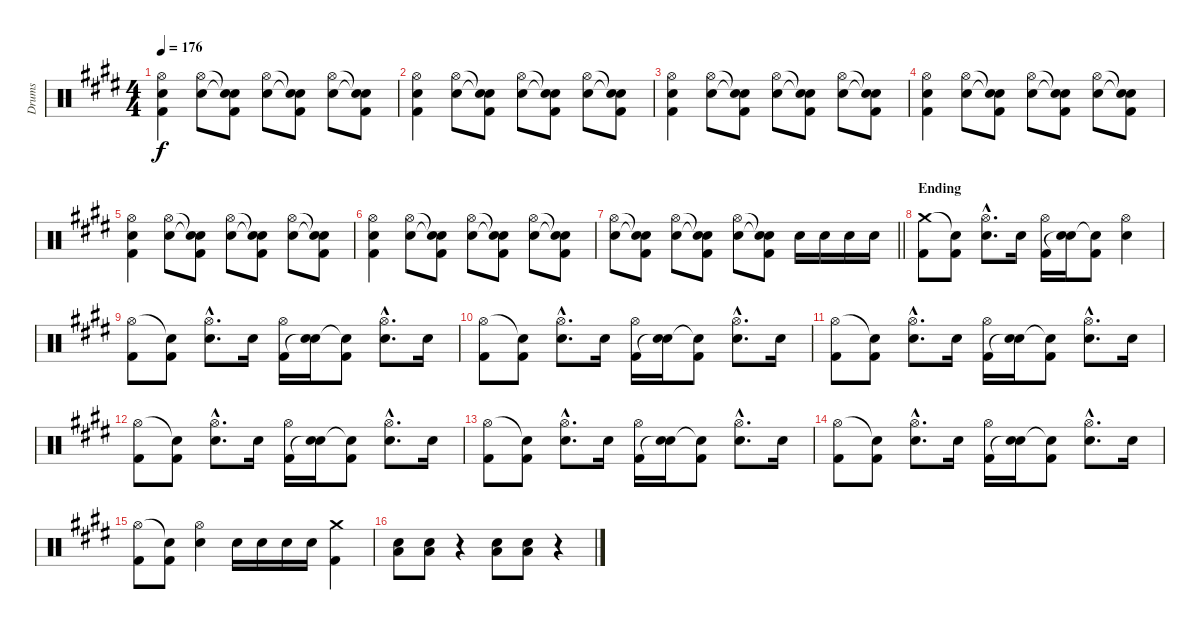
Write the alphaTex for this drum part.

\track ("Drums" "Drums") {instrument percussion}
\staff {score}
\articulation defaults
\ts (4 4)
\tempo 176
\clef neutral
\ks c#minor
("Hi-Hat (open)" "Electric Snare (hit)" "Kick (hit) 2").4{dy f} ("Hi-Hat (open)" "Electric Snare (hit)").8 ("Snare (hit)"{t} "Snare (hit)"{t} "Kick (hit) 2").8 ("Hi-Hat (open)" "Electric Snare (hit)").8 ("Snare (hit)"{t} "Snare (hit)"{t} "Kick (hit) 2").8 ("Hi-Hat (open)" "Electric Snare (hit)").8 ("Snare (hit)"{t} "Snare (hit)"{t} "Kick (hit) 2").8 |
("Hi-Hat (open)" "Electric Snare (hit)" "Kick (hit) 2").4 ("Hi-Hat (open)" "Electric Snare (hit)").8 ("Snare (hit)"{t} "Snare (hit)"{t} "Kick (hit) 2").8 ("Hi-Hat (open)" "Electric Snare (hit)").8 ("Snare (hit)"{t} "Snare (hit)"{t} "Kick (hit) 2").8 ("Hi-Hat (open)" "Electric Snare (hit)").8 ("Snare (hit)"{t} "Snare (hit)"{t} "Kick (hit) 2").8 |
("Hi-Hat (open)" "Electric Snare (hit)" "Kick (hit) 2").4 ("Hi-Hat (open)" "Electric Snare (hit)").8 ("Snare (hit)"{t} "Snare (hit)"{t} "Kick (hit) 2").8 ("Hi-Hat (open)" "Electric Snare (hit)").8 ("Snare (hit)"{t} "Snare (hit)"{t} "Kick (hit) 2").8 ("Hi-Hat (open)" "Electric Snare (hit)").8 ("Snare (hit)"{t} "Snare (hit)"{t} "Kick (hit) 2").8 |
("Hi-Hat (open)" "Electric Snare (hit)" "Kick (hit) 2").4 ("Hi-Hat (open)" "Electric Snare (hit)").8 ("Snare (hit)"{t} "Snare (hit)"{t} "Kick (hit) 2").8 ("Hi-Hat (open)" "Electric Snare (hit)").8 ("Snare (hit)"{t} "Snare (hit)"{t} "Kick (hit) 2").8 ("Hi-Hat (open)" "Electric Snare (hit)").8 ("Snare (hit)"{t} "Snare (hit)"{t} "Kick (hit) 2").8 |
("Hi-Hat (open)" "Electric Snare (hit)" "Kick (hit) 2").4 ("Hi-Hat (open)" "Electric Snare (hit)").8 ("Snare (hit)"{t} "Snare (hit)"{t} "Kick (hit) 2").8 ("Hi-Hat (open)" "Electric Snare (hit)").8 ("Snare (hit)"{t} "Snare (hit)"{t} "Kick (hit) 2").8 ("Hi-Hat (open)" "Electric Snare (hit)").8 ("Snare (hit)"{t} "Snare (hit)"{t} "Kick (hit) 2").8 |
("Hi-Hat (open)" "Electric Snare (hit)" "Kick (hit) 2").4 ("Hi-Hat (open)" "Electric Snare (hit)").8 ("Snare (hit)"{t} "Snare (hit)"{t} "Kick (hit) 2").8 ("Hi-Hat (open)" "Electric Snare (hit)").8 ("Snare (hit)"{t} "Snare (hit)"{t} "Kick (hit) 2").8 ("Hi-Hat (open)" "Electric Snare (hit)").8 ("Snare (hit)"{t} "Snare (hit)"{t} "Kick (hit) 2").8 |
\barLineRight lightlight
("Hi-Hat (open)" "Electric Snare (hit)").8 ("Snare (hit)"{t} "Snare (hit)"{t} "Kick (hit) 2").8 ("Hi-Hat (open)" "Electric Snare (hit)").8 ("Snare (hit)"{t} "Snare (hit)"{t} "Kick (hit) 2").8 ("Hi-Hat (open)" "Electric Snare (hit)").8 ("Snare (hit)"{t} "Snare (hit)"{t} "Kick (hit) 2").8 "Electric Snare (hit)".16 "Electric Snare (hit)".16 "Electric Snare (hit)".16 "Electric Snare (hit)".16 |
\section ("" "Ending")
("Crash medium (hit)" "Kick (hit) 2").8 ("Snare (hit)"{t} "Kick (hit) 2").8 ("Hi-Hat (open)"{hac} "Electric Snare (hit)"{hac}).8{d} "Electric Snare (hit)".16 ("Hi-Hat (open)" "Kick (hit) 2").16 ("Electric Snare (hit)" "Snare (hit)"{t}).16 ("Snare (hit)"{t} "Kick (hit) 2").8 ("Hi-Hat (open)" "Electric Snare (hit)").4 |
("Hi-Hat (open)" "Kick (hit) 2").8 ("Snare (hit)"{t} "Kick (hit) 2").8 ("Hi-Hat (open)"{hac} "Electric Snare (hit)"{hac}).8{d} "Electric Snare (hit)".16 ("Hi-Hat (open)" "Kick (hit) 2").16 ("Electric Snare (hit)" "Snare (hit)"{t}).16 ("Snare (hit)"{t} "Kick (hit) 2").8 ("Hi-Hat (open)"{hac} "Electric Snare (hit)"{hac}).8{d} "Electric Snare (hit)".16 |
("Hi-Hat (open)" "Kick (hit) 2").8 ("Snare (hit)"{t} "Kick (hit) 2").8 ("Hi-Hat (open)"{hac} "Electric Snare (hit)"{hac}).8{d} "Electric Snare (hit)".16 ("Hi-Hat (open)" "Kick (hit) 2").16 ("Electric Snare (hit)" "Snare (hit)"{t}).16 ("Snare (hit)"{t} "Kick (hit) 2").8 ("Hi-Hat (open)"{hac} "Electric Snare (hit)"{hac}).8{d} "Electric Snare (hit)".16 |
("Hi-Hat (open)" "Kick (hit) 2").8 ("Snare (hit)"{t} "Kick (hit) 2").8 ("Hi-Hat (open)"{hac} "Electric Snare (hit)"{hac}).8{d} "Electric Snare (hit)".16 ("Hi-Hat (open)" "Kick (hit) 2").16 ("Electric Snare (hit)" "Snare (hit)"{t}).16 ("Snare (hit)"{t} "Kick (hit) 2").8 ("Hi-Hat (open)"{hac} "Electric Snare (hit)"{hac}).8{d} "Electric Snare (hit)".16 |
("Hi-Hat (open)" "Kick (hit) 2").8 ("Snare (hit)"{t} "Kick (hit) 2").8 ("Hi-Hat (open)"{hac} "Electric Snare (hit)"{hac}).8{d} "Electric Snare (hit)".16 ("Hi-Hat (open)" "Kick (hit) 2").16 ("Electric Snare (hit)" "Snare (hit)"{t}).16 ("Snare (hit)"{t} "Kick (hit) 2").8 ("Hi-Hat (open)"{hac} "Electric Snare (hit)"{hac}).8{d} "Electric Snare (hit)".16 |
("Hi-Hat (open)" "Kick (hit) 2").8 ("Snare (hit)"{t} "Kick (hit) 2").8 ("Hi-Hat (open)"{hac} "Electric Snare (hit)"{hac}).8{d} "Electric Snare (hit)".16 ("Hi-Hat (open)" "Kick (hit) 2").16 ("Electric Snare (hit)" "Snare (hit)"{t}).16 ("Snare (hit)"{t} "Kick (hit) 2").8 ("Hi-Hat (open)"{hac} "Electric Snare (hit)"{hac}).8{d} "Electric Snare (hit)".16 |
("Hi-Hat (open)" "Kick (hit) 2").8 ("Snare (hit)"{t} "Kick (hit) 2").8 ("Hi-Hat (open)"{hac} "Electric Snare (hit)"{hac}).8{d} "Electric Snare (hit)".16 ("Hi-Hat (open)" "Kick (hit) 2").16 ("Electric Snare (hit)" "Snare (hit)"{t}).16 ("Snare (hit)"{t} "Kick (hit) 2").8 ("Hi-Hat (open)"{hac} "Electric Snare (hit)"{hac}).8{d} "Electric Snare (hit)".16 |
("Hi-Hat (open)" "Kick (hit) 2").8 ("Snare (hit)"{t} "Kick (hit) 2").8 ("Hi-Hat (open)" "Electric Snare (hit)").4 "Electric Snare (hit)".16 "Electric Snare (hit)".16 "Electric Snare (hit)".16 "Electric Snare (hit)".16 ("Crash medium (hit)" "Kick (hit) 2").4 |
("Electric Snare (hit)" "Low Floor Tom (hit)").8 ("Electric Snare (hit)" "Low Floor Tom (hit)").8 r.4 ("Electric Snare (hit)" "Low Floor Tom (hit)").8 ("Electric Snare (hit)" "Low Floor Tom (hit)").8 r.4
